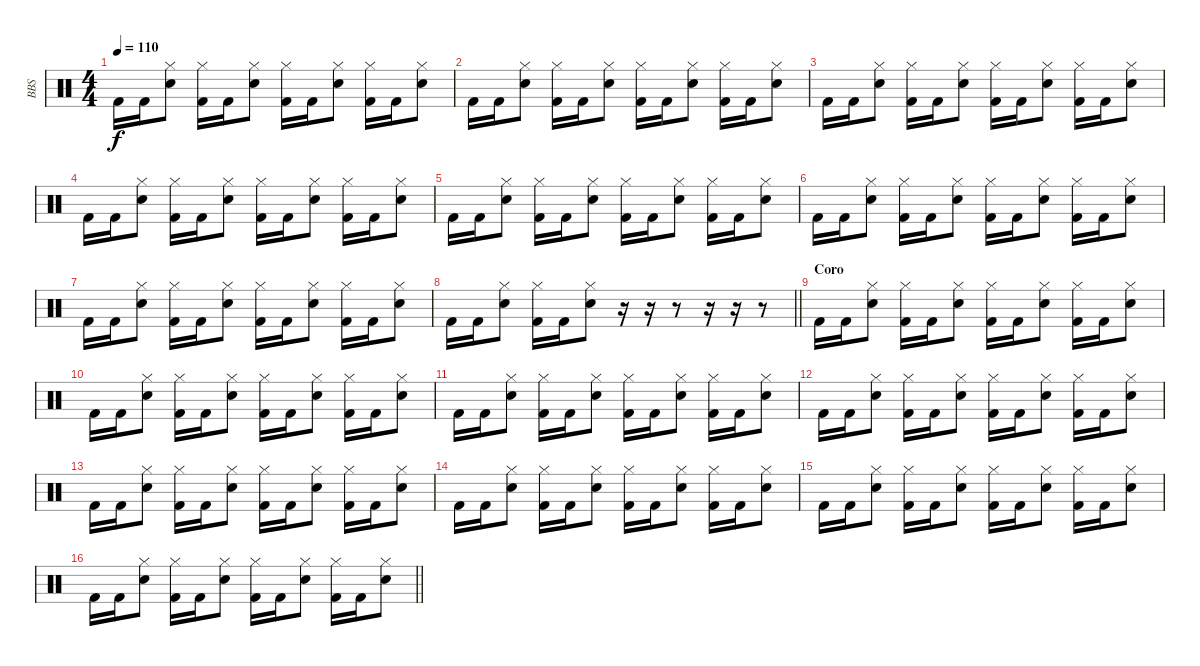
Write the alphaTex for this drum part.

\track ("BBS" "BBS") {instrument percussion}
\staff {score}
\articulation defaults
\ts (4 4)
\tempo 110
\clef neutral
\ks c "Kick (hit) 2".16{dy f} "Kick (hit) 2".16
("Hi-Hat (closed)" "Snare (hit) 2").8 ("Hi-Hat (closed)" "Kick (hit) 2").16 "Kick (hit) 2".16 ("Hi-Hat (closed)" "Snare (hit) 2").8 ("Hi-Hat (closed)" "Kick (hit) 2").16 "Kick (hit) 2".16 ("Hi-Hat (closed)" "Snare (hit) 2").8 ("Hi-Hat (closed)" "Kick (hit) 2").16 "Kick (hit) 2".16 ("Hi-Hat (closed)" "Snare (hit) 2").8 |
"Kick (hit) 2".16 "Kick (hit) 2".16 ("Hi-Hat (closed)" "Snare (hit) 2").8 ("Hi-Hat (closed)" "Kick (hit) 2").16 "Kick (hit) 2".16 ("Hi-Hat (closed)" "Snare (hit) 2").8 ("Hi-Hat (closed)" "Kick (hit) 2").16 "Kick (hit) 2".16 ("Hi-Hat (closed)" "Snare (hit) 2").8 ("Hi-Hat (closed)" "Kick (hit) 2").16 "Kick (hit) 2".16 ("Hi-Hat (closed)" "Snare (hit) 2").8 |
"Kick (hit) 2".16 "Kick (hit) 2".16 ("Hi-Hat (closed)" "Snare (hit) 2").8 ("Hi-Hat (closed)" "Kick (hit) 2").16 "Kick (hit) 2".16 ("Hi-Hat (closed)" "Snare (hit) 2").8 ("Hi-Hat (closed)" "Kick (hit) 2").16 "Kick (hit) 2".16 ("Hi-Hat (closed)" "Snare (hit) 2").8 ("Hi-Hat (closed)" "Kick (hit) 2").16 "Kick (hit) 2".16 ("Hi-Hat (closed)" "Snare (hit) 2").8 |
"Kick (hit) 2".16 "Kick (hit) 2".16 ("Hi-Hat (closed)" "Snare (hit) 2").8 ("Hi-Hat (closed)" "Kick (hit) 2").16 "Kick (hit) 2".16 ("Hi-Hat (closed)" "Snare (hit) 2").8 ("Hi-Hat (closed)" "Kick (hit) 2").16 "Kick (hit) 2".16 ("Hi-Hat (closed)" "Snare (hit) 2").8 ("Hi-Hat (closed)" "Kick (hit) 2").16 "Kick (hit) 2".16 ("Hi-Hat (closed)" "Snare (hit) 2").8 |
"Kick (hit) 2".16 "Kick (hit) 2".16 ("Hi-Hat (closed)" "Snare (hit) 2").8 ("Hi-Hat (closed)" "Kick (hit) 2").16 "Kick (hit) 2".16 ("Hi-Hat (closed)" "Snare (hit) 2").8 ("Hi-Hat (closed)" "Kick (hit) 2").16 "Kick (hit) 2".16 ("Hi-Hat (closed)" "Snare (hit) 2").8 ("Hi-Hat (closed)" "Kick (hit) 2").16 "Kick (hit) 2".16 ("Hi-Hat (closed)" "Snare (hit) 2").8 |
"Kick (hit) 2".16 "Kick (hit) 2".16 ("Hi-Hat (closed)" "Snare (hit) 2").8 ("Hi-Hat (closed)" "Kick (hit) 2").16 "Kick (hit) 2".16 ("Hi-Hat (closed)" "Snare (hit) 2").8 ("Hi-Hat (closed)" "Kick (hit) 2").16 "Kick (hit) 2".16 ("Hi-Hat (closed)" "Snare (hit) 2").8 ("Hi-Hat (closed)" "Kick (hit) 2").16 "Kick (hit) 2".16 ("Hi-Hat (closed)" "Snare (hit) 2").8 |
"Kick (hit) 2".16 "Kick (hit) 2".16 ("Hi-Hat (closed)" "Snare (hit) 2").8 ("Hi-Hat (closed)" "Kick (hit) 2").16 "Kick (hit) 2".16 ("Hi-Hat (closed)" "Snare (hit) 2").8 ("Hi-Hat (closed)" "Kick (hit) 2").16 "Kick (hit) 2".16 ("Hi-Hat (closed)" "Snare (hit) 2").8 ("Hi-Hat (closed)" "Kick (hit) 2").16 "Kick (hit) 2".16 ("Hi-Hat (closed)" "Snare (hit) 2").8 |
\barLineRight lightlight "Kick (hit) 2".16 "Kick (hit) 2".16
("Hi-Hat (closed)" "Snare (hit) 2").8 ("Hi-Hat (closed)" "Kick (hit) 2").16 "Kick (hit) 2".16 ("Hi-Hat (closed)" "Snare (hit) 2").8 r.16 r.16 r.8 r.16 r.16 r.8 |
\section ("" "Coro")
"Kick (hit) 2".16 "Kick (hit) 2".16 ("Hi-Hat (closed)" "Snare (hit) 2").8 ("Hi-Hat (closed)" "Kick (hit) 2").16 "Kick (hit) 2".16 ("Hi-Hat (closed)" "Snare (hit) 2").8 ("Hi-Hat (closed)" "Kick (hit) 2").16 "Kick (hit) 2".16 ("Hi-Hat (closed)" "Snare (hit) 2").8 ("Hi-Hat (closed)" "Kick (hit) 2").16 "Kick (hit) 2".16 ("Hi-Hat (closed)" "Snare (hit) 2").8 |
"Kick (hit) 2".16 "Kick (hit) 2".16 ("Hi-Hat (closed)" "Snare (hit) 2").8 ("Hi-Hat (closed)" "Kick (hit) 2").16 "Kick (hit) 2".16 ("Hi-Hat (closed)" "Snare (hit) 2").8 ("Hi-Hat (closed)" "Kick (hit) 2").16 "Kick (hit) 2".16 ("Hi-Hat (closed)" "Snare (hit) 2").8 ("Hi-Hat (closed)" "Kick (hit) 2").16 "Kick (hit) 2".16 ("Hi-Hat (closed)" "Snare (hit) 2").8 |
"Kick (hit) 2".16 "Kick (hit) 2".16 ("Hi-Hat (closed)" "Snare (hit) 2").8 ("Hi-Hat (closed)" "Kick (hit) 2").16 "Kick (hit) 2".16 ("Hi-Hat (closed)" "Snare (hit) 2").8 ("Hi-Hat (closed)" "Kick (hit) 2").16 "Kick (hit) 2".16 ("Hi-Hat (closed)" "Snare (hit) 2").8 ("Hi-Hat (closed)" "Kick (hit) 2").16 "Kick (hit) 2".16 ("Hi-Hat (closed)" "Snare (hit) 2").8 |
"Kick (hit) 2".16 "Kick (hit) 2".16 ("Hi-Hat (closed)" "Snare (hit) 2").8 ("Hi-Hat (closed)" "Kick (hit) 2").16 "Kick (hit) 2".16 ("Hi-Hat (closed)" "Snare (hit) 2").8 ("Hi-Hat (closed)" "Kick (hit) 2").16 "Kick (hit) 2".16 ("Hi-Hat (closed)" "Snare (hit) 2").8 ("Hi-Hat (closed)" "Kick (hit) 2").16 "Kick (hit) 2".16 ("Hi-Hat (closed)" "Snare (hit) 2").8 |
"Kick (hit) 2".16 "Kick (hit) 2".16 ("Hi-Hat (closed)" "Snare (hit) 2").8 ("Hi-Hat (closed)" "Kick (hit) 2").16 "Kick (hit) 2".16 ("Hi-Hat (closed)" "Snare (hit) 2").8 ("Hi-Hat (closed)" "Kick (hit) 2").16 "Kick (hit) 2".16 ("Hi-Hat (closed)" "Snare (hit) 2").8 ("Hi-Hat (closed)" "Kick (hit) 2").16 "Kick (hit) 2".16 ("Hi-Hat (closed)" "Snare (hit) 2").8 |
"Kick (hit) 2".16 "Kick (hit) 2".16 ("Hi-Hat (closed)" "Snare (hit) 2").8 ("Hi-Hat (closed)" "Kick (hit) 2").16 "Kick (hit) 2".16 ("Hi-Hat (closed)" "Snare (hit) 2").8 ("Hi-Hat (closed)" "Kick (hit) 2").16 "Kick (hit) 2".16 ("Hi-Hat (closed)" "Snare (hit) 2").8 ("Hi-Hat (closed)" "Kick (hit) 2").16 "Kick (hit) 2".16 ("Hi-Hat (closed)" "Snare (hit) 2").8 |
"Kick (hit) 2".16 "Kick (hit) 2".16 ("Hi-Hat (closed)" "Snare (hit) 2").8 ("Hi-Hat (closed)" "Kick (hit) 2").16 "Kick (hit) 2".16 ("Hi-Hat (closed)" "Snare (hit) 2").8 ("Hi-Hat (closed)" "Kick (hit) 2").16 "Kick (hit) 2".16 ("Hi-Hat (closed)" "Snare (hit) 2").8 ("Hi-Hat (closed)" "Kick (hit) 2").16 "Kick (hit) 2".16 ("Hi-Hat (closed)" "Snare (hit) 2").8 |
\barLineRight lightlight "Kick (hit) 2".16 "Kick (hit) 2".16
("Hi-Hat (closed)" "Snare (hit) 2").8 ("Hi-Hat (closed)" "Kick (hit) 2").16 "Kick (hit) 2".16 ("Hi-Hat (closed)" "Snare (hit) 2").8 ("Hi-Hat (closed)" "Kick (hit) 2").16 "Kick (hit) 2".16 ("Hi-Hat (closed)" "Snare (hit) 2").8 ("Hi-Hat (closed)" "Kick (hit) 2").16 "Kick (hit) 2".16 ("Hi-Hat (closed)" "Snare (hit) 2").8
